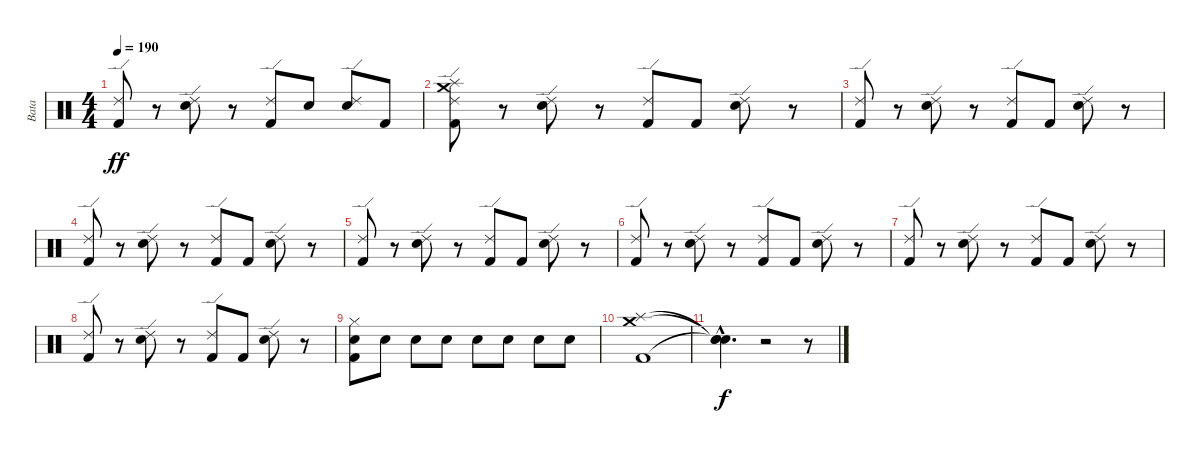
\track ("Bata" "Bata") {instrument percussion}
\staff {score}
\articulation defaults
\ts (4 4)
\tempo 190
\clef neutral
\ks c
("Kick (hit) 2" "Ride (edge) 2").8{dy ff} r.8 ("Ride (edge) 2" "Snare (hit) 2").8 r.8 ("Kick (hit) 2" "Ride (edge) 2").8 "Snare (hit) 2".8 ("Snare (hit) 2" "Ride (edge) 2").8 "Kick (hit) 2".8 |
("Splash (hit)" "Crash medium (hit)" "Ride (edge) 2" "Kick (hit) 2").8 r.8 ("Ride (edge) 2" "Snare (hit) 2").8 r.8 ("Kick (hit) 2" "Ride (edge) 2").8 "Kick (hit) 2".8 ("Ride (edge) 2" "Snare (hit) 2").8 r.8 |
("Ride (edge) 2" "Kick (hit) 2").8 r.8 ("Snare (hit) 2" "Ride (edge) 2").8 r.8 ("Kick (hit) 2" "Ride (edge) 2").8 "Kick (hit) 2".8 ("Ride (edge) 2" "Snare (hit) 2").8 r.8 |
("Kick (hit) 2" "Ride (edge) 2").8 r.8 ("Snare (hit) 2" "Ride (edge) 2").8 r.8 ("Ride (edge) 2" "Kick (hit) 2").8 "Kick (hit) 2".8 ("Ride (edge) 2" "Snare (hit) 2").8 r.8 |
("Kick (hit) 2" "Ride (edge) 2").8 r.8 ("Snare (hit) 2" "Ride (edge) 2").8 r.8 ("Ride (edge) 2" "Kick (hit) 2").8 "Kick (hit) 2".8 ("Snare (hit) 2" "Ride (edge) 2").8 r.8 |
("Kick (hit) 2" "Ride (edge) 2").8 r.8 ("Ride (edge) 2" "Snare (hit) 2").8 r.8 ("Ride (edge) 2" "Kick (hit) 2").8 "Kick (hit) 2".8 ("Snare (hit) 2" "Ride (edge) 2").8 r.8 |
("Ride (edge) 2" "Kick (hit) 2").8 r.8 ("Ride (edge) 2" "Snare (hit) 2").8 r.8 ("Kick (hit) 2" "Ride (edge) 2").8 "Kick (hit) 2".8 ("Snare (hit) 2" "Ride (edge) 2").8 r.8 |
("Ride (edge) 2" "Kick (hit) 2").8 r.8 ("Snare (hit) 2" "Ride (edge) 2").8 r.8 ("Kick (hit) 2" "Ride (edge) 2").8 "Kick (hit) 2".8 ("Ride (edge) 2" "Snare (hit) 2").8 r.8 |
("Snare (hit) 2" "Hi-Hat (closed)" "Kick (hit) 2").8 "Snare (hit) 2".8 "Snare (hit) 2".8 "Snare (hit) 2".8 "Snare (hit) 2".8 "Snare (hit) 2".8 "Snare (hit) 2".8 "Snare (hit) 2".8 |
("Kick (hit) 2" "Splash (hit)" "Crash medium (hit)").1 |
("Snare (hit)"{hac t} "Snare (hit)"{hac t} "Snare (hit)"{hac t}).4{d dy f} r.2 r.8
